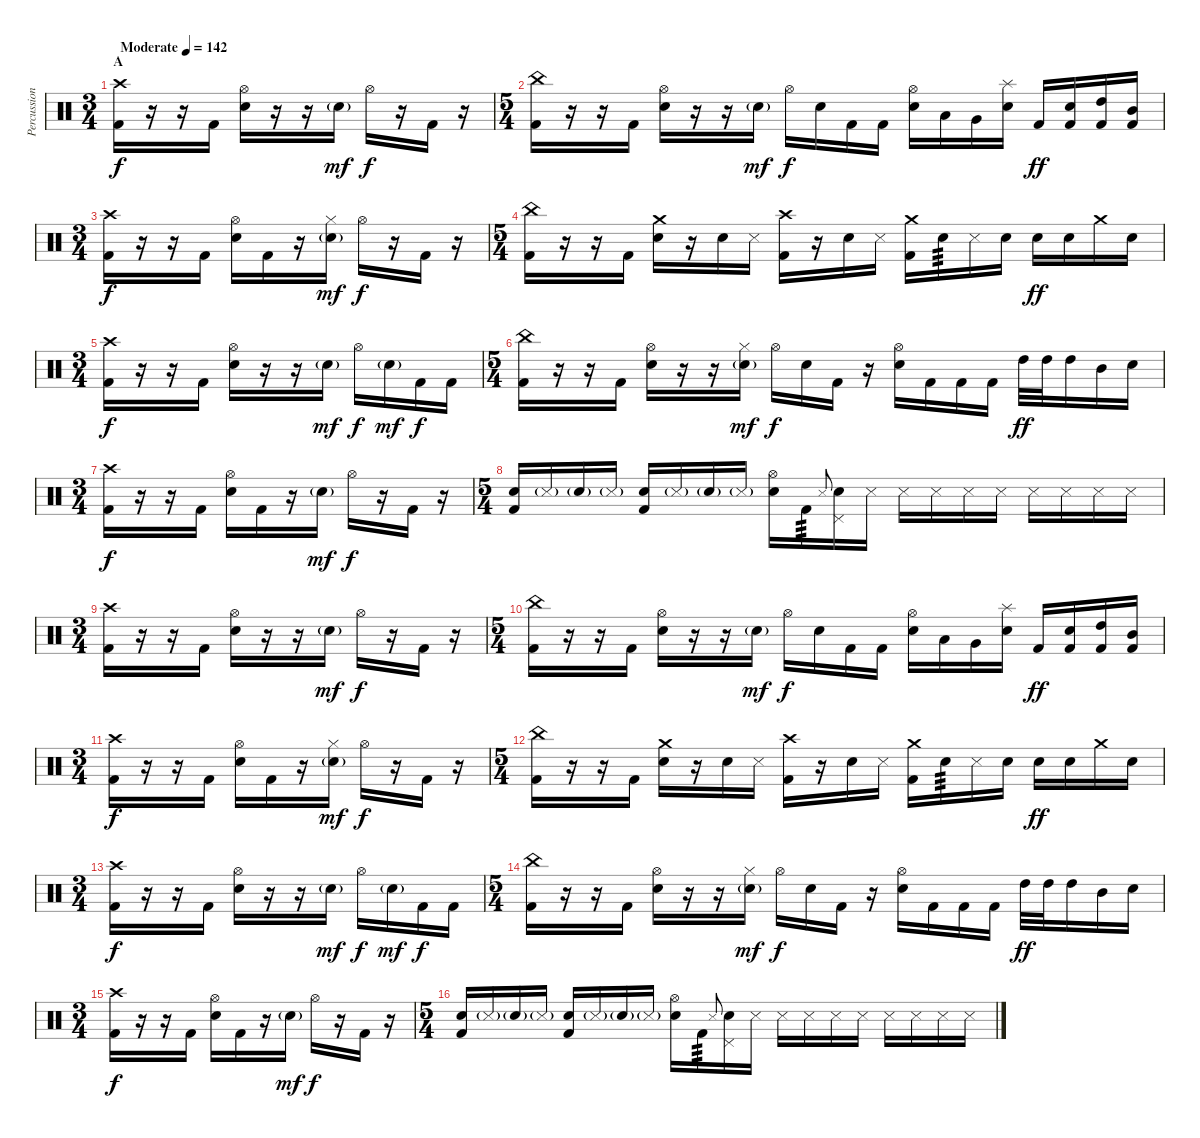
\track ("Percussion" "Percussion") {instrument percussion}
\staff {score}
\articulation defaults
\ts (3 4)
\section ("" "A")
\tempo (142 "Moderate")
\clef neutral
\ks c
("Crash high (hit)" "Kick (hit) 2").16{dy f} r.16 r.16 "Kick (hit) 2".16 ("Hi-Hat (open)" "Snare (hit) 2").16 r.16 r.16 "Snare (hit) 2"{g}.16{dy mf} "Hi-Hat (open)".16{dy f} r.16 "Kick (hit) 2".16 r.16 |
\ts (5 4)
("China (hit)" "Kick (hit) 2").16 r.16 r.16 "Kick (hit) 2".16 ("Hi-Hat (open)" "Snare (hit) 2").16 r.16 r.16 "Snare (hit) 2"{g}.16{dy mf} "Hi-Hat (open)".16{dy f} "Snare (hit) 2".16 "Kick (hit) 2".16 "Kick (hit) 2".16 ("Hi-Hat (open)" "Snare (hit) 2").16 "Low Tom (hit)".16 "Very Low Tom (hit)".16 ("Splash (hit)" "Snare (hit) 2").16 "Kick (hit) 2".16{dy ff} ("Snare (hit) 2" "Kick (hit) 2").16 ("High Tom (hit)" "Kick (hit) 2").16 ("Mid Tom (hit)" "Kick (hit) 2").16 |
\ts (3 4)
("Crash high (hit)" "Kick (hit) 2").16{dy f} r.16 r.16 "Kick (hit) 2".16 ("Hi-Hat (open)" "Snare (hit) 2").16 "Kick (hit) 2".16 r.16 ("Hi-Hat (closed)" "Snare (hit) 2"{g}).16{dy mf} "Hi-Hat (open)".16{dy f} r.16 "Kick (hit) 2".16 r.16 |
\ts (5 4)
("China (hit)" "Kick (hit) 2").16 r.16 r.16 "Kick (hit) 2".16 ("Crash medium (hit)" "Snare (hit) 2").16 r.16 "Snare (hit) 2".16 "Metronome (hit)".16 ("Crash high (hit)" "Kick (hit) 2").16 r.16 "Snare (hit) 2".16 "Metronome (hit)".16 ("Crash medium (hit)" "Kick (hit) 2").16 "Snare (hit) 2".16{tp 3} "Metronome (hit)".16 "Snare (hit) 2".16 "Snare (hit) 2".16{dy ff} "Snare (hit) 2".16 "Crash medium (hit)".16 "Snare (hit) 2".16 |
\ts (3 4)
("Crash high (hit)" "Kick (hit) 2").16{dy f} r.16 r.16 "Kick (hit) 2".16 ("Hi-Hat (open)" "Snare (hit) 2").16 r.16 r.16 "Snare (hit) 2"{g}.16{dy mf} "Hi-Hat (open)".16{dy f} "Snare (hit) 2"{g}.16{dy mf} "Kick (hit) 2".16{dy f} "Kick (hit) 2".16 |
\ts (5 4)
("China (hit)" "Kick (hit) 2").16 r.16 r.16 "Kick (hit) 2".16 ("Hi-Hat (open)" "Snare (hit) 2").16 r.16 r.16 ("Hi-Hat (closed)" "Snare (hit) 2"{g}).16{dy mf} "Hi-Hat (open)".16{dy f} "Snare (hit) 2".16 "Kick (hit) 2".16 r.16 ("Hi-Hat (open)" "Snare (hit) 2").16 "Kick (hit) 2".16 "Kick (hit) 2".16 "Kick (hit) 2".16 "High Tom (hit)".32{dy ff} "High Tom (hit)".32 "High Tom (hit)".16 "Mid Tom (hit)".16 "Snare (hit) 2".16 |
\ts (3 4)
("Crash high (hit)" "Kick (hit) 2").16{dy f} r.16 r.16 "Kick (hit) 2".16 ("Hi-Hat (open)" "Snare (hit) 2").16 "Kick (hit) 2".16 r.16 "Snare (hit) 2"{g}.16{dy mf} "Hi-Hat (open)".16{dy f} r.16 "Kick (hit) 2".16 r.16 |
\ts (5 4)
("Snare (hit) 2" "Kick (hit) 2").16 "Metronome (hit)"{g}.16 "Snare (hit) 2"{g}.16 "Metronome (hit)"{g}.16 ("Snare (hit) 2" "Kick (hit) 2").16 "Metronome (hit)"{g}.16 "Snare (hit) 2"{g}.16 "Metronome (hit)"{g}.16 ("Hi-Hat (open)" "Snare (hit) 2").16 "Kick (hit) 2".16{tp 3} "Metronome (hit)".8{gr onbeat} ("Pedal Hi-Hat (hit)" "Snare (hit) 2").16 "Snare (side stick) 3".16 "Snare (side stick) 3".16 "Snare (side stick) 3".16 "Snare (side stick) 3".16 "Snare (side stick) 3".16 "Snare (side stick) 3".16 "Snare (side stick) 3".16 "Snare (side stick) 3".16 "Snare (side stick) 3".16 |
\ts (3 4)
("Crash high (hit)" "Kick (hit) 2").16 r.16 r.16 "Kick (hit) 2".16 ("Hi-Hat (open)" "Snare (hit) 2").16 r.16 r.16 "Snare (hit) 2"{g}.16{dy mf} "Hi-Hat (open)".16{dy f} r.16 "Kick (hit) 2".16 r.16 |
\ts (5 4)
("China (hit)" "Kick (hit) 2").16 r.16 r.16 "Kick (hit) 2".16 ("Hi-Hat (open)" "Snare (hit) 2").16 r.16 r.16 "Snare (hit) 2"{g}.16{dy mf} "Hi-Hat (open)".16{dy f} "Snare (hit) 2".16 "Kick (hit) 2".16 "Kick (hit) 2".16 ("Hi-Hat (open)" "Snare (hit) 2").16 "Low Tom (hit)".16 "Very Low Tom (hit)".16 ("Splash (hit)" "Snare (hit) 2").16 "Kick (hit) 2".16{dy ff} ("Snare (hit) 2" "Kick (hit) 2").16 ("High Tom (hit)" "Kick (hit) 2").16 ("Mid Tom (hit)" "Kick (hit) 2").16 |
\ts (3 4)
("Crash high (hit)" "Kick (hit) 2").16{dy f} r.16 r.16 "Kick (hit) 2".16 ("Hi-Hat (open)" "Snare (hit) 2").16 "Kick (hit) 2".16 r.16 ("Hi-Hat (closed)" "Snare (hit) 2"{g}).16{dy mf} "Hi-Hat (open)".16{dy f} r.16 "Kick (hit) 2".16 r.16 |
\ts (5 4)
("China (hit)" "Kick (hit) 2").16 r.16 r.16 "Kick (hit) 2".16 ("Crash medium (hit)" "Snare (hit) 2").16 r.16 "Snare (hit) 2".16 "Metronome (hit)".16 ("Crash high (hit)" "Kick (hit) 2").16 r.16 "Snare (hit) 2".16 "Metronome (hit)".16 ("Crash medium (hit)" "Kick (hit) 2").16 "Snare (hit) 2".16{tp 3} "Metronome (hit)".16 "Snare (hit) 2".16 "Snare (hit) 2".16{dy ff} "Snare (hit) 2".16 "Crash medium (hit)".16 "Snare (hit) 2".16 |
\ts (3 4)
("Crash high (hit)" "Kick (hit) 2").16{dy f} r.16 r.16 "Kick (hit) 2".16 ("Hi-Hat (open)" "Snare (hit) 2").16 r.16 r.16 "Snare (hit) 2"{g}.16{dy mf} "Hi-Hat (open)".16{dy f} "Snare (hit) 2"{g}.16{dy mf} "Kick (hit) 2".16{dy f} "Kick (hit) 2".16 |
\ts (5 4)
("China (hit)" "Kick (hit) 2").16 r.16 r.16 "Kick (hit) 2".16 ("Hi-Hat (open)" "Snare (hit) 2").16 r.16 r.16 ("Hi-Hat (closed)" "Snare (hit) 2"{g}).16{dy mf} "Hi-Hat (open)".16{dy f} "Snare (hit) 2".16 "Kick (hit) 2".16 r.16 ("Hi-Hat (open)" "Snare (hit) 2").16 "Kick (hit) 2".16 "Kick (hit) 2".16 "Kick (hit) 2".16 "High Tom (hit)".32{dy ff} "High Tom (hit)".32 "High Tom (hit)".16 "Mid Tom (hit)".16 "Snare (hit) 2".16 |
\ts (3 4)
("Crash high (hit)" "Kick (hit) 2").16{dy f} r.16 r.16 "Kick (hit) 2".16 ("Hi-Hat (open)" "Snare (hit) 2").16 "Kick (hit) 2".16 r.16 "Snare (hit) 2"{g}.16{dy mf} "Hi-Hat (open)".16{dy f} r.16 "Kick (hit) 2".16 r.16 |
\ts (5 4)
("Snare (hit) 2" "Kick (hit) 2").16 "Metronome (hit)"{g}.16 "Snare (hit) 2"{g}.16 "Metronome (hit)"{g}.16 ("Snare (hit) 2" "Kick (hit) 2").16 "Metronome (hit)"{g}.16 "Snare (hit) 2"{g}.16 "Metronome (hit)"{g}.16 ("Hi-Hat (open)" "Snare (hit) 2").16 "Kick (hit) 2".16{tp 3} "Metronome (hit)".8{gr onbeat} ("Pedal Hi-Hat (hit)" "Snare (hit) 2").16 "Snare (side stick) 3".16 "Snare (side stick) 3".16 "Snare (side stick) 3".16 "Snare (side stick) 3".16 "Snare (side stick) 3".16 "Snare (side stick) 3".16 "Snare (side stick) 3".16 "Snare (side stick) 3".16 "Snare (side stick) 3".16
